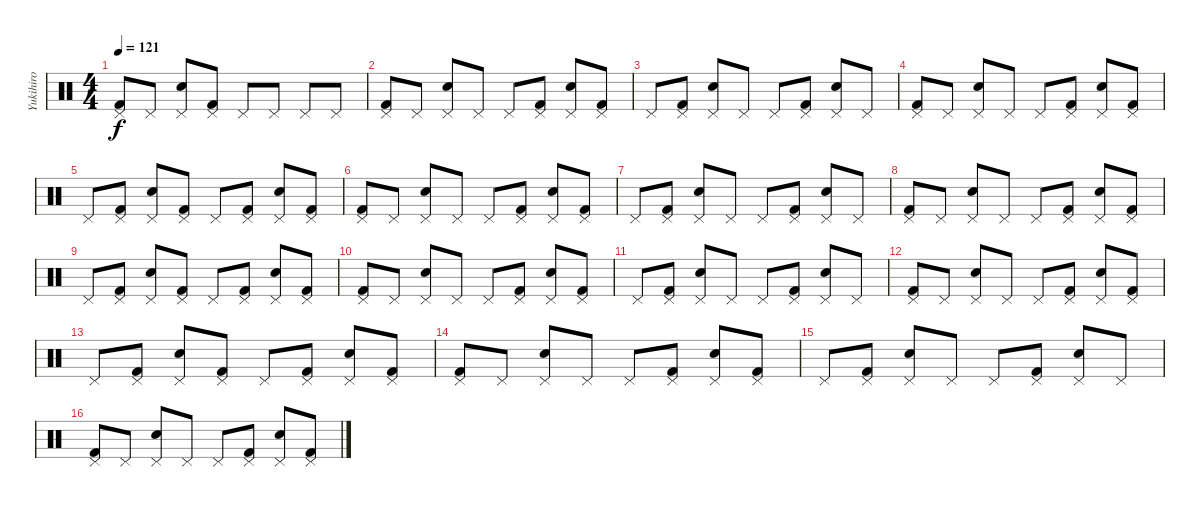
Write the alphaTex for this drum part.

\track ("Yukihiro" "Yukihiro") {instrument percussion}
\staff {score}
\articulation defaults
\ts (4 4)
\tempo 121
\clef neutral
\ks c
("Pedal Hi-Hat (hit)" "Kick (hit) 2").8{dy f} "Pedal Hi-Hat (hit)".8 ("Pedal Hi-Hat (hit)" "Electric Snare (hit)").8 ("Pedal Hi-Hat (hit)" "Kick (hit) 2").8 "Pedal Hi-Hat (hit)".8 "Pedal Hi-Hat (hit)".8 "Pedal Hi-Hat (hit)".8 "Pedal Hi-Hat (hit)".8 |
("Pedal Hi-Hat (hit)" "Kick (hit) 2").8 "Pedal Hi-Hat (hit)".8 ("Pedal Hi-Hat (hit)" "Electric Snare (hit)").8 "Pedal Hi-Hat (hit)".8 "Pedal Hi-Hat (hit)".8 ("Pedal Hi-Hat (hit)" "Kick (hit) 2").8 ("Pedal Hi-Hat (hit)" "Electric Snare (hit)").8 ("Pedal Hi-Hat (hit)" "Kick (hit) 2").8 |
"Pedal Hi-Hat (hit)".8 ("Pedal Hi-Hat (hit)" "Kick (hit) 2").8 ("Pedal Hi-Hat (hit)" "Electric Snare (hit)").8 "Pedal Hi-Hat (hit)".8 "Pedal Hi-Hat (hit)".8 ("Pedal Hi-Hat (hit)" "Kick (hit) 2").8 ("Pedal Hi-Hat (hit)" "Electric Snare (hit)").8 "Pedal Hi-Hat (hit)".8 |
("Pedal Hi-Hat (hit)" "Kick (hit) 2").8 "Pedal Hi-Hat (hit)".8 ("Pedal Hi-Hat (hit)" "Electric Snare (hit)").8 "Pedal Hi-Hat (hit)".8 "Pedal Hi-Hat (hit)".8 ("Pedal Hi-Hat (hit)" "Kick (hit) 2").8 ("Pedal Hi-Hat (hit)" "Electric Snare (hit)").8 ("Pedal Hi-Hat (hit)" "Kick (hit) 2").8 |
"Pedal Hi-Hat (hit)".8 ("Pedal Hi-Hat (hit)" "Kick (hit) 2").8 ("Pedal Hi-Hat (hit)" "Electric Snare (hit)").8 ("Pedal Hi-Hat (hit)" "Kick (hit) 2").8 "Pedal Hi-Hat (hit)".8 ("Pedal Hi-Hat (hit)" "Kick (hit) 2").8 ("Pedal Hi-Hat (hit)" "Electric Snare (hit)").8 ("Pedal Hi-Hat (hit)" "Kick (hit) 2").8 |
("Pedal Hi-Hat (hit)" "Kick (hit) 2").8 "Pedal Hi-Hat (hit)".8 ("Pedal Hi-Hat (hit)" "Electric Snare (hit)").8 "Pedal Hi-Hat (hit)".8 "Pedal Hi-Hat (hit)".8 ("Pedal Hi-Hat (hit)" "Kick (hit) 2").8 ("Pedal Hi-Hat (hit)" "Electric Snare (hit)").8 ("Pedal Hi-Hat (hit)" "Kick (hit) 2").8 |
"Pedal Hi-Hat (hit)".8 ("Pedal Hi-Hat (hit)" "Kick (hit) 2").8 ("Pedal Hi-Hat (hit)" "Electric Snare (hit)").8 "Pedal Hi-Hat (hit)".8 "Pedal Hi-Hat (hit)".8 ("Pedal Hi-Hat (hit)" "Kick (hit) 2").8 ("Pedal Hi-Hat (hit)" "Electric Snare (hit)").8 "Pedal Hi-Hat (hit)".8 |
("Pedal Hi-Hat (hit)" "Kick (hit) 2").8 "Pedal Hi-Hat (hit)".8 ("Pedal Hi-Hat (hit)" "Electric Snare (hit)").8 "Pedal Hi-Hat (hit)".8 "Pedal Hi-Hat (hit)".8 ("Pedal Hi-Hat (hit)" "Kick (hit) 2").8 ("Pedal Hi-Hat (hit)" "Electric Snare (hit)").8 ("Pedal Hi-Hat (hit)" "Kick (hit) 2").8 |
"Pedal Hi-Hat (hit)".8 ("Pedal Hi-Hat (hit)" "Kick (hit) 2").8 ("Pedal Hi-Hat (hit)" "Electric Snare (hit)").8 ("Pedal Hi-Hat (hit)" "Kick (hit) 2").8 "Pedal Hi-Hat (hit)".8 ("Pedal Hi-Hat (hit)" "Kick (hit) 2").8 ("Pedal Hi-Hat (hit)" "Electric Snare (hit)").8 ("Pedal Hi-Hat (hit)" "Kick (hit) 2").8 |
("Pedal Hi-Hat (hit)" "Kick (hit) 2").8 "Pedal Hi-Hat (hit)".8 ("Pedal Hi-Hat (hit)" "Electric Snare (hit)").8 "Pedal Hi-Hat (hit)".8 "Pedal Hi-Hat (hit)".8 ("Pedal Hi-Hat (hit)" "Kick (hit) 2").8 ("Pedal Hi-Hat (hit)" "Electric Snare (hit)").8 ("Pedal Hi-Hat (hit)" "Kick (hit) 2").8 |
"Pedal Hi-Hat (hit)".8 ("Pedal Hi-Hat (hit)" "Kick (hit) 2").8 ("Pedal Hi-Hat (hit)" "Electric Snare (hit)").8 "Pedal Hi-Hat (hit)".8 "Pedal Hi-Hat (hit)".8 ("Pedal Hi-Hat (hit)" "Kick (hit) 2").8 ("Pedal Hi-Hat (hit)" "Electric Snare (hit)").8 "Pedal Hi-Hat (hit)".8 |
("Pedal Hi-Hat (hit)" "Kick (hit) 2").8 "Pedal Hi-Hat (hit)".8 ("Pedal Hi-Hat (hit)" "Electric Snare (hit)").8 "Pedal Hi-Hat (hit)".8 "Pedal Hi-Hat (hit)".8 ("Pedal Hi-Hat (hit)" "Kick (hit) 2").8 ("Pedal Hi-Hat (hit)" "Electric Snare (hit)").8 ("Pedal Hi-Hat (hit)" "Kick (hit) 2").8 |
"Pedal Hi-Hat (hit)".8 ("Pedal Hi-Hat (hit)" "Kick (hit) 2").8 ("Pedal Hi-Hat (hit)" "Electric Snare (hit)").8 ("Pedal Hi-Hat (hit)" "Kick (hit) 2").8 "Pedal Hi-Hat (hit)".8 ("Pedal Hi-Hat (hit)" "Kick (hit) 2").8 ("Pedal Hi-Hat (hit)" "Electric Snare (hit)").8 ("Pedal Hi-Hat (hit)" "Kick (hit) 2").8 |
("Pedal Hi-Hat (hit)" "Kick (hit) 2").8 "Pedal Hi-Hat (hit)".8 ("Pedal Hi-Hat (hit)" "Electric Snare (hit)").8 "Pedal Hi-Hat (hit)".8 "Pedal Hi-Hat (hit)".8 ("Pedal Hi-Hat (hit)" "Kick (hit) 2").8 ("Pedal Hi-Hat (hit)" "Electric Snare (hit)").8 ("Pedal Hi-Hat (hit)" "Kick (hit) 2").8 |
"Pedal Hi-Hat (hit)".8 ("Pedal Hi-Hat (hit)" "Kick (hit) 2").8 ("Pedal Hi-Hat (hit)" "Electric Snare (hit)").8 "Pedal Hi-Hat (hit)".8 "Pedal Hi-Hat (hit)".8 ("Pedal Hi-Hat (hit)" "Kick (hit) 2").8 ("Pedal Hi-Hat (hit)" "Electric Snare (hit)").8 "Pedal Hi-Hat (hit)".8 |
("Pedal Hi-Hat (hit)" "Kick (hit) 2").8 "Pedal Hi-Hat (hit)".8 ("Pedal Hi-Hat (hit)" "Electric Snare (hit)").8 "Pedal Hi-Hat (hit)".8 "Pedal Hi-Hat (hit)".8 ("Pedal Hi-Hat (hit)" "Kick (hit) 2").8 ("Pedal Hi-Hat (hit)" "Electric Snare (hit)").8 ("Pedal Hi-Hat (hit)" "Kick (hit) 2").8
